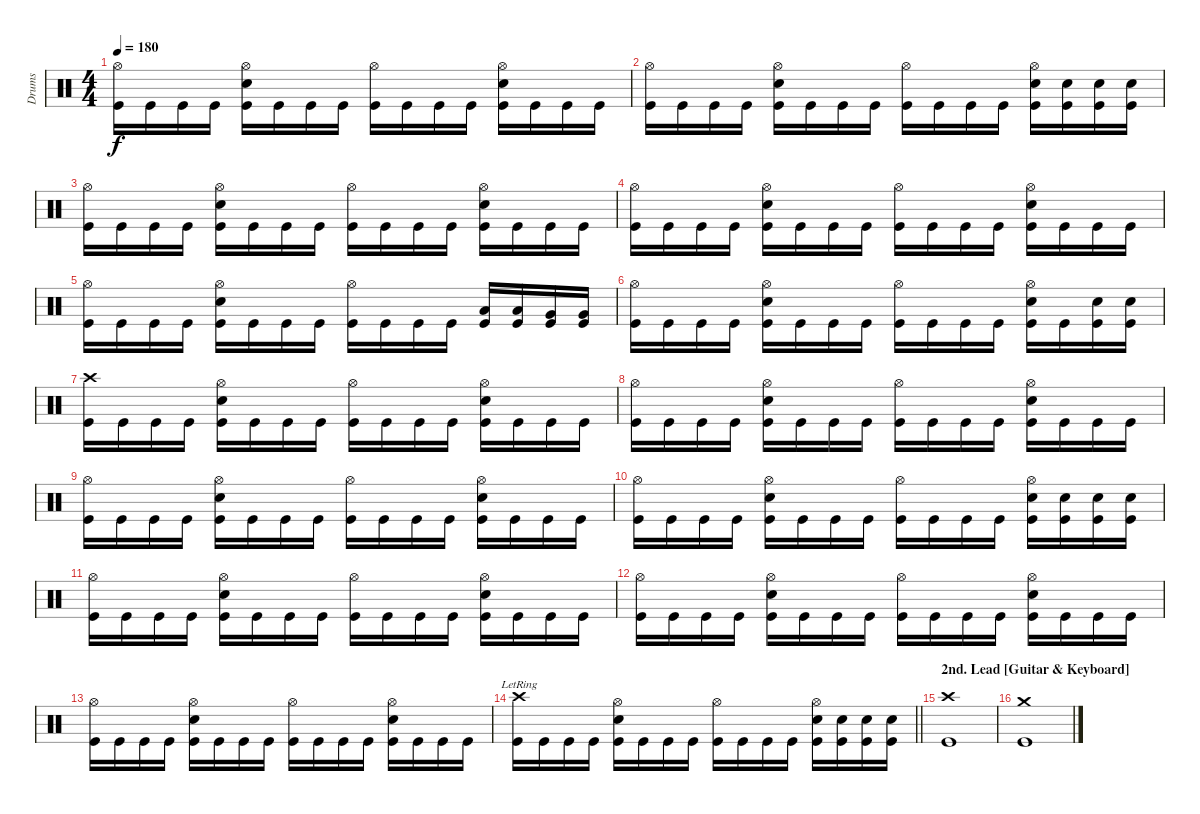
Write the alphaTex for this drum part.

\track ("Drums" "Drums") {instrument percussion}
\staff {score}
\articulation defaults
\ts (4 4)
\tempo 180
\clef neutral
\ks c
("Hi-Hat (open)" "Kick (hit)").16{dy f} "Kick (hit)".16 "Kick (hit)".16 "Kick (hit)".16 ("Hi-Hat (open)" "Electric Snare (hit)" "Kick (hit)").16 "Kick (hit)".16 "Kick (hit)".16 "Kick (hit)".16 ("Hi-Hat (open)" "Kick (hit)").16 "Kick (hit)".16 "Kick (hit)".16 "Kick (hit)".16 ("Hi-Hat (open)" "Electric Snare (hit)" "Kick (hit)").16 "Kick (hit)".16 "Kick (hit)".16 "Kick (hit)".16 |
("Hi-Hat (open)" "Kick (hit)").16 "Kick (hit)".16 "Kick (hit)".16 "Kick (hit)".16 ("Hi-Hat (open)" "Electric Snare (hit)" "Kick (hit)").16 "Kick (hit)".16 "Kick (hit)".16 "Kick (hit)".16 ("Hi-Hat (open)" "Kick (hit)").16 "Kick (hit)".16 "Kick (hit)".16 "Kick (hit)".16 ("Hi-Hat (open)" "Electric Snare (hit)" "Kick (hit)").16 ("Electric Snare (hit)" "Kick (hit)").16 ("Electric Snare (hit)" "Kick (hit)").16 ("Electric Snare (hit)" "Kick (hit)").16 |
("Hi-Hat (open)" "Kick (hit)").16 "Kick (hit)".16 "Kick (hit)".16 "Kick (hit)".16 ("Hi-Hat (open)" "Electric Snare (hit)" "Kick (hit)").16 "Kick (hit)".16 "Kick (hit)".16 "Kick (hit)".16 ("Hi-Hat (open)" "Kick (hit)").16 "Kick (hit)".16 "Kick (hit)".16 "Kick (hit)".16 ("Hi-Hat (open)" "Electric Snare (hit)" "Kick (hit)").16 "Kick (hit)".16 "Kick (hit)".16 "Kick (hit)".16 |
("Hi-Hat (open)" "Kick (hit)").16 "Kick (hit)".16 "Kick (hit)".16 "Kick (hit)".16 ("Hi-Hat (open)" "Electric Snare (hit)" "Kick (hit)").16 "Kick (hit)".16 "Kick (hit)".16 "Kick (hit)".16 ("Hi-Hat (open)" "Kick (hit)").16 "Kick (hit)".16 "Kick (hit)".16 "Kick (hit)".16 ("Hi-Hat (open)" "Electric Snare (hit)" "Kick (hit)").16 "Kick (hit)".16 "Kick (hit)".16 "Kick (hit)".16 |
("Hi-Hat (open)" "Kick (hit)").16 "Kick (hit)".16 "Kick (hit)".16 "Kick (hit)".16 ("Hi-Hat (open)" "Electric Snare (hit)" "Kick (hit)").16 "Kick (hit)".16 "Kick (hit)".16 "Kick (hit)".16 ("Hi-Hat (open)" "Kick (hit)").16 "Kick (hit)".16 "Kick (hit)".16 "Kick (hit)".16 ("Low Tom (hit)" "Kick (hit)").16 ("Low Tom (hit)" "Kick (hit)").16 ("Very Low Tom (hit)" "Kick (hit)").16 ("Very Low Tom (hit)" "Kick (hit)").16 |
("Hi-Hat (open)" "Kick (hit)").16 "Kick (hit)".16 "Kick (hit)".16 "Kick (hit)".16 ("Hi-Hat (open)" "Electric Snare (hit)" "Kick (hit)").16 "Kick (hit)".16 "Kick (hit)".16 "Kick (hit)".16 ("Hi-Hat (open)" "Kick (hit)").16 "Kick (hit)".16 "Kick (hit)".16 "Kick (hit)".16 ("Hi-Hat (open)" "Electric Snare (hit)" "Kick (hit)").16 "Kick (hit)".16 ("Electric Snare (hit)" "Kick (hit)").16 ("Electric Snare (hit)" "Kick (hit)").16 |
("Crash high (hit)" "Kick (hit)").16 "Kick (hit)".16 "Kick (hit)".16 "Kick (hit)".16 ("Hi-Hat (open)" "Electric Snare (hit)" "Kick (hit)").16 "Kick (hit)".16 "Kick (hit)".16 "Kick (hit)".16 ("Hi-Hat (open)" "Kick (hit)").16 "Kick (hit)".16 "Kick (hit)".16 "Kick (hit)".16 ("Hi-Hat (open)" "Electric Snare (hit)" "Kick (hit)").16 "Kick (hit)".16 "Kick (hit)".16 "Kick (hit)".16 |
("Hi-Hat (open)" "Kick (hit)").16 "Kick (hit)".16 "Kick (hit)".16 "Kick (hit)".16 ("Hi-Hat (open)" "Electric Snare (hit)" "Kick (hit)").16 "Kick (hit)".16 "Kick (hit)".16 "Kick (hit)".16 ("Hi-Hat (open)" "Kick (hit)").16 "Kick (hit)".16 "Kick (hit)".16 "Kick (hit)".16 ("Hi-Hat (open)" "Electric Snare (hit)" "Kick (hit)").16 "Kick (hit)".16 "Kick (hit)".16 "Kick (hit)".16 |
("Hi-Hat (open)" "Kick (hit)").16 "Kick (hit)".16 "Kick (hit)".16 "Kick (hit)".16 ("Hi-Hat (open)" "Electric Snare (hit)" "Kick (hit)").16 "Kick (hit)".16 "Kick (hit)".16 "Kick (hit)".16 ("Hi-Hat (open)" "Kick (hit)").16 "Kick (hit)".16 "Kick (hit)".16 "Kick (hit)".16 ("Hi-Hat (open)" "Electric Snare (hit)" "Kick (hit)").16 "Kick (hit)".16 "Kick (hit)".16 "Kick (hit)".16 |
("Hi-Hat (open)" "Kick (hit)").16 "Kick (hit)".16 "Kick (hit)".16 "Kick (hit)".16 ("Hi-Hat (open)" "Electric Snare (hit)" "Kick (hit)").16 "Kick (hit)".16 "Kick (hit)".16 "Kick (hit)".16 ("Hi-Hat (open)" "Kick (hit)").16 "Kick (hit)".16 "Kick (hit)".16 "Kick (hit)".16 ("Hi-Hat (open)" "Electric Snare (hit)" "Kick (hit)").16 ("Electric Snare (hit)" "Kick (hit)").16 ("Electric Snare (hit)" "Kick (hit)").16 ("Electric Snare (hit)" "Kick (hit)").16 |
("Hi-Hat (open)" "Kick (hit)").16 "Kick (hit)".16 "Kick (hit)".16 "Kick (hit)".16 ("Hi-Hat (open)" "Electric Snare (hit)" "Kick (hit)").16 "Kick (hit)".16 "Kick (hit)".16 "Kick (hit)".16 ("Hi-Hat (open)" "Kick (hit)").16 "Kick (hit)".16 "Kick (hit)".16 "Kick (hit)".16 ("Hi-Hat (open)" "Electric Snare (hit)" "Kick (hit)").16 "Kick (hit)".16 "Kick (hit)".16 "Kick (hit)".16 |
("Hi-Hat (open)" "Kick (hit)").16 "Kick (hit)".16 "Kick (hit)".16 "Kick (hit)".16 ("Hi-Hat (open)" "Electric Snare (hit)" "Kick (hit)").16 "Kick (hit)".16 "Kick (hit)".16 "Kick (hit)".16 ("Hi-Hat (open)" "Kick (hit)").16 "Kick (hit)".16 "Kick (hit)".16 "Kick (hit)".16 ("Hi-Hat (open)" "Electric Snare (hit)" "Kick (hit)").16 "Kick (hit)".16 "Kick (hit)".16 "Kick (hit)".16 |
("Hi-Hat (open)" "Kick (hit)").16 "Kick (hit)".16 "Kick (hit)".16 "Kick (hit)".16 ("Hi-Hat (open)" "Electric Snare (hit)" "Kick (hit)").16 "Kick (hit)".16 "Kick (hit)".16 "Kick (hit)".16 ("Hi-Hat (open)" "Kick (hit)").16 "Kick (hit)".16 "Kick (hit)".16 "Kick (hit)".16 ("Hi-Hat (open)" "Electric Snare (hit)" "Kick (hit)").16 "Kick (hit)".16 "Kick (hit)".16 "Kick (hit)".16 |
\barLineRight lightlight
("Crash high (hit)"{lr} "Kick (hit)").16 "Kick (hit)".16 "Kick (hit)".16 "Kick (hit)".16 ("Hi-Hat (open)" "Electric Snare (hit)" "Kick (hit)").16 "Kick (hit)".16 "Kick (hit)".16 "Kick (hit)".16 ("Hi-Hat (open)" "Kick (hit)").16 "Kick (hit)".16 "Kick (hit)".16 "Kick (hit)".16 ("Hi-Hat (open)" "Electric Snare (hit)" "Kick (hit)").16 ("Electric Snare (hit)" "Kick (hit)").16 ("Electric Snare (hit)" "Kick (hit)").16 ("Electric Snare (hit)" "Kick (hit)").16 |
\section ("" "2nd. Lead [Guitar & Keyboard]")
("Crash high (hit)" "Kick (hit)").1 |
("Crash medium (hit)" "Kick (hit)").1
